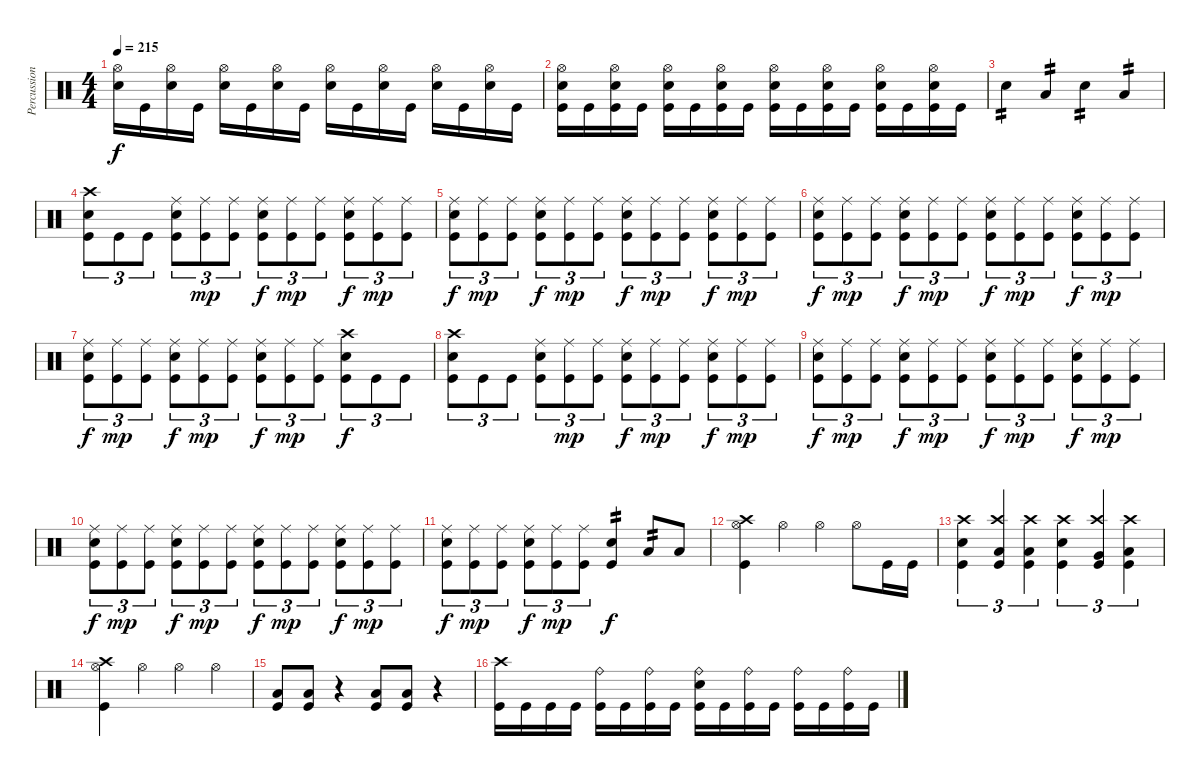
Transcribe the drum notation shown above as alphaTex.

\track ("Percussion" "Percussion") {instrument percussion}
\staff {score}
\articulation defaults
\ts (4 4)
\tempo 215
\clef neutral
\ks c
("Hi-Hat (open)" "Electric Snare (hit)").16{dy f} "Kick (hit)".16 ("Hi-Hat (open)" "Electric Snare (hit)").16 "Kick (hit)".16 ("Hi-Hat (open)" "Electric Snare (hit)").16 "Kick (hit)".16 ("Hi-Hat (open)" "Electric Snare (hit)").16 "Kick (hit)".16 ("Hi-Hat (open)" "Electric Snare (hit)").16 "Kick (hit)".16 ("Hi-Hat (open)" "Electric Snare (hit)").16 "Kick (hit)".16 ("Hi-Hat (open)" "Electric Snare (hit)").16 "Kick (hit)".16 ("Hi-Hat (open)" "Electric Snare (hit)").16 "Kick (hit)".16 |
("Hi-Hat (open)" "Electric Snare (hit)" "Kick (hit)").16 "Kick (hit)".16 ("Hi-Hat (open)" "Electric Snare (hit)" "Kick (hit)").16 "Kick (hit)".16 ("Hi-Hat (open)" "Electric Snare (hit)" "Kick (hit)").16 "Kick (hit)".16 ("Hi-Hat (open)" "Electric Snare (hit)" "Kick (hit)").16 "Kick (hit)".16 ("Hi-Hat (open)" "Electric Snare (hit)" "Kick (hit)").16 "Kick (hit)".16 ("Hi-Hat (open)" "Electric Snare (hit)" "Kick (hit)").16 "Kick (hit)".16 ("Hi-Hat (open)" "Electric Snare (hit)" "Kick (hit)").16 "Kick (hit)".16 ("Hi-Hat (open)" "Electric Snare (hit)" "Kick (hit)").16 "Kick (hit)".16 |
"Electric Snare (hit)".4{tp 2} "Low Floor Tom (hit)".4{tp 2} "Electric Snare (hit)".4{tp 2} "Low Floor Tom (hit)".4{tp 2} |
("Crash high (hit)" "Electric Snare (hit)" "Kick (hit)").8{tu (3 2)} "Kick (hit)".8{tu (3 2)} "Kick (hit)".8{tu (3 2)} ("Ride (middle)" "Electric Snare (hit)" "Kick (hit)").8{tu (3 2)} ("Ride (middle)" "Kick (hit)").8{tu (3 2) dy mp} ("Ride (middle)" "Kick (hit)").8{tu (3 2)} ("Ride (middle)" "Electric Snare (hit)" "Kick (hit)").8{tu (3 2) dy f} ("Ride (middle)" "Kick (hit)").8{tu (3 2) dy mp} ("Ride (middle)" "Kick (hit)").8{tu (3 2)} ("Ride (middle)" "Electric Snare (hit)" "Kick (hit)").8{tu (3 2) dy f} ("Ride (middle)" "Kick (hit)").8{tu (3 2) dy mp} ("Ride (middle)" "Kick (hit)").8{tu (3 2)} |
("Ride (middle)" "Electric Snare (hit)" "Kick (hit)").8{tu (3 2) dy f} ("Ride (middle)" "Kick (hit)").8{tu (3 2) dy mp} ("Ride (middle)" "Kick (hit)").8{tu (3 2)} ("Ride (middle)" "Electric Snare (hit)" "Kick (hit)").8{tu (3 2) dy f} ("Ride (middle)" "Kick (hit)").8{tu (3 2) dy mp} ("Ride (middle)" "Kick (hit)").8{tu (3 2)} ("Ride (middle)" "Electric Snare (hit)" "Kick (hit)").8{tu (3 2) dy f} ("Ride (middle)" "Kick (hit)").8{tu (3 2) dy mp} ("Ride (middle)" "Kick (hit)").8{tu (3 2)} ("Ride (middle)" "Electric Snare (hit)" "Kick (hit)").8{tu (3 2) dy f} ("Ride (middle)" "Kick (hit)").8{tu (3 2) dy mp} ("Ride (middle)" "Kick (hit)").8{tu (3 2)} |
("Ride (middle)" "Electric Snare (hit)" "Kick (hit)").8{tu (3 2) dy f} ("Ride (middle)" "Kick (hit)").8{tu (3 2) dy mp} ("Ride (middle)" "Kick (hit)").8{tu (3 2)} ("Ride (middle)" "Electric Snare (hit)" "Kick (hit)").8{tu (3 2) dy f} ("Ride (middle)" "Kick (hit)").8{tu (3 2) dy mp} ("Ride (middle)" "Kick (hit)").8{tu (3 2)} ("Ride (middle)" "Electric Snare (hit)" "Kick (hit)").8{tu (3 2) dy f} ("Ride (middle)" "Kick (hit)").8{tu (3 2) dy mp} ("Ride (middle)" "Kick (hit)").8{tu (3 2)} ("Ride (middle)" "Electric Snare (hit)" "Kick (hit)").8{tu (3 2) dy f} ("Ride (middle)" "Kick (hit)").8{tu (3 2) dy mp} ("Ride (middle)" "Kick (hit)").8{tu (3 2)} |
("Ride (middle)" "Electric Snare (hit)" "Kick (hit)").8{tu (3 2) dy f} ("Ride (middle)" "Kick (hit)").8{tu (3 2) dy mp} ("Ride (middle)" "Kick (hit)").8{tu (3 2)} ("Ride (middle)" "Electric Snare (hit)" "Kick (hit)").8{tu (3 2) dy f} ("Ride (middle)" "Kick (hit)").8{tu (3 2) dy mp} ("Ride (middle)" "Kick (hit)").8{tu (3 2)} ("Ride (middle)" "Electric Snare (hit)" "Kick (hit)").8{tu (3 2) dy f} ("Ride (middle)" "Kick (hit)").8{tu (3 2) dy mp} ("Ride (middle)" "Kick (hit)").8{tu (3 2)} ("Crash high (hit)" "Electric Snare (hit)" "Kick (hit)").8{tu (3 2) dy f} "Kick (hit)".8{tu (3 2)} "Kick (hit)".8{tu (3 2)} |
("Crash high (hit)" "Electric Snare (hit)" "Kick (hit)").8{tu (3 2)} "Kick (hit)".8{tu (3 2)} "Kick (hit)".8{tu (3 2)} ("Ride (middle)" "Electric Snare (hit)" "Kick (hit)").8{tu (3 2)} ("Ride (middle)" "Kick (hit)").8{tu (3 2) dy mp} ("Ride (middle)" "Kick (hit)").8{tu (3 2)} ("Ride (middle)" "Electric Snare (hit)" "Kick (hit)").8{tu (3 2) dy f} ("Ride (middle)" "Kick (hit)").8{tu (3 2) dy mp} ("Ride (middle)" "Kick (hit)").8{tu (3 2)} ("Ride (middle)" "Electric Snare (hit)" "Kick (hit)").8{tu (3 2) dy f} ("Ride (middle)" "Kick (hit)").8{tu (3 2) dy mp} ("Ride (middle)" "Kick (hit)").8{tu (3 2)} |
("Ride (middle)" "Electric Snare (hit)" "Kick (hit)").8{tu (3 2) dy f} ("Ride (middle)" "Kick (hit)").8{tu (3 2) dy mp} ("Ride (middle)" "Kick (hit)").8{tu (3 2)} ("Ride (middle)" "Electric Snare (hit)" "Kick (hit)").8{tu (3 2) dy f} ("Ride (middle)" "Kick (hit)").8{tu (3 2) dy mp} ("Ride (middle)" "Kick (hit)").8{tu (3 2)} ("Ride (middle)" "Electric Snare (hit)" "Kick (hit)").8{tu (3 2) dy f} ("Ride (middle)" "Kick (hit)").8{tu (3 2) dy mp} ("Ride (middle)" "Kick (hit)").8{tu (3 2)} ("Ride (middle)" "Electric Snare (hit)" "Kick (hit)").8{tu (3 2) dy f} ("Ride (middle)" "Kick (hit)").8{tu (3 2) dy mp} ("Ride (middle)" "Kick (hit)").8{tu (3 2)} |
("Ride (middle)" "Electric Snare (hit)" "Kick (hit)").8{tu (3 2) dy f} ("Ride (middle)" "Kick (hit)").8{tu (3 2) dy mp} ("Ride (middle)" "Kick (hit)").8{tu (3 2)} ("Ride (middle)" "Electric Snare (hit)" "Kick (hit)").8{tu (3 2) dy f} ("Ride (middle)" "Kick (hit)").8{tu (3 2) dy mp} ("Ride (middle)" "Kick (hit)").8{tu (3 2)} ("Ride (middle)" "Electric Snare (hit)" "Kick (hit)").8{tu (3 2) dy f} ("Ride (middle)" "Kick (hit)").8{tu (3 2) dy mp} ("Ride (middle)" "Kick (hit)").8{tu (3 2)} ("Ride (middle)" "Electric Snare (hit)" "Kick (hit)").8{tu (3 2) dy f} ("Ride (middle)" "Kick (hit)").8{tu (3 2) dy mp} ("Ride (middle)" "Kick (hit)").8{tu (3 2)} |
("Ride (middle)" "Electric Snare (hit)" "Kick (hit)").8{tu (3 2) dy f} ("Ride (middle)" "Kick (hit)").8{tu (3 2) dy mp} ("Ride (middle)" "Kick (hit)").8{tu (3 2)} ("Ride (middle)" "Electric Snare (hit)" "Kick (hit)").8{tu (3 2) dy f} ("Ride (middle)" "Kick (hit)").8{tu (3 2) dy mp} ("Ride (middle)" "Kick (hit)").8{tu (3 2)} ("Electric Snare (hit)" "Kick (hit)").4{tp 2 dy f} "Low Tom (hit)".8{tp 2} "Low Floor Tom (hit)".8 |
("Crash high (hit)" "Hi-Hat (open)" "Kick (hit)").4 "Hi-Hat (open)".4 "Hi-Hat (open)".4 "Hi-Hat (open)".8 "Kick (hit)".16 "Kick (hit)".16 |
("Crash high (hit)" "Electric Snare (hit)" "Kick (hit)").4{tu (3 2)} ("Crash high (hit)" "Low Tom (hit)" "Kick (hit)").4{tu (3 2)} ("Crash high (hit)" "Low Floor Tom (hit)" "Kick (hit)").4{tu (3 2)} ("Crash high (hit)" "Electric Snare (hit)" "Kick (hit)").4{tu (3 2)} ("Crash high (hit)" "Very Low Tom (hit)" "Kick (hit)").4{tu (3 2)} ("Crash high (hit)" "Low Floor Tom (hit)" "Kick (hit)").4{tu (3 2)} |
("Crash high (hit)" "Hi-Hat (open)" "Kick (hit)").4 "Hi-Hat (open)".4 "Hi-Hat (open)".4 "Hi-Hat (open)".4 |
("Low Floor Tom (hit)" "Kick (hit)").8 ("Low Floor Tom (hit)" "Kick (hit)").8 r.4 ("Low Floor Tom (hit)" "Kick (hit)").8 ("Low Floor Tom (hit)" "Kick (hit)").8 r.4 |
("Crash high (hit)" "Kick (hit)").16 "Kick (hit)".16 "Kick (hit)".16 "Kick (hit)".16 ("Ride (bell)" "Kick (hit)").16 "Kick (hit)".16 ("Ride (bell)" "Kick (hit)").16 "Kick (hit)".16 ("Ride (bell)" "Electric Snare (hit)" "Kick (hit)").16 "Kick (hit)".16 ("Ride (bell)" "Kick (hit)").16 "Kick (hit)".16 ("Ride (bell)" "Kick (hit)").16 "Kick (hit)".16 ("Ride (bell)" "Kick (hit)").16 "Kick (hit)".16
